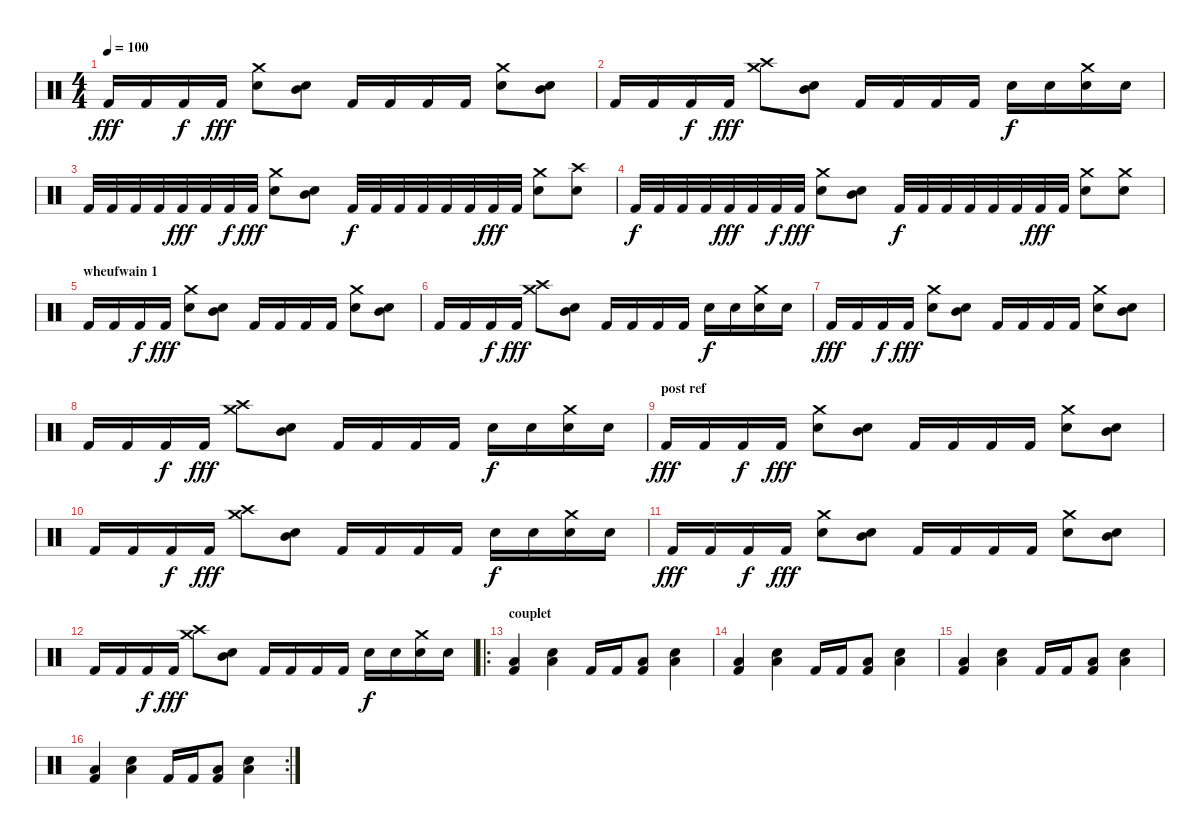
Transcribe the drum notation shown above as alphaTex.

\track "" {instrument percussion}
\staff {score}
\articulation defaults
\ts (4 4)
\tempo 100
\clef neutral
\ks c "Kick (hit) 2".16{dy fff} "Kick (hit) 2".16 "Kick (hit) 2".16{dy f} "Kick (hit) 2".16{dy fff}
("Electric Snare (hit)" "Crash medium (hit)").8 ("Snare (hit) 2" "Mid Tom (hit)").8 "Kick (hit) 2".16 "Kick (hit) 2".16 "Kick (hit) 2".16 "Kick (hit) 2".16 ("Electric Snare (hit)" "Crash medium (hit)").8 ("Snare (hit) 2" "Mid Tom (hit)").8 |
"Kick (hit) 2".16 "Kick (hit) 2".16 "Kick (hit) 2".16{dy f} "Kick (hit) 2".16{dy fff} ("Crash high (hit)" "Crash medium (hit)").8 ("Snare (hit) 2" "Mid Tom (hit)").8 "Kick (hit) 2".16 "Kick (hit) 2".16 "Kick (hit) 2".16 "Kick (hit) 2".16 "Electric Snare (hit)".16{dy f} "Electric Snare (hit)".16 ("Electric Snare (hit)" "Crash medium (hit)").16 "Electric Snare (hit)".16 |
"Kick (hit) 2".32 "Kick (hit) 2".32 "Kick (hit) 2".32 "Kick (hit) 2".32 "Kick (hit) 2".32{dy fff} "Kick (hit) 2".32 "Kick (hit) 2".32{dy f} "Kick (hit) 2".32{dy fff} ("Electric Snare (hit)" "Crash medium (hit)").8 ("Snare (hit) 2" "Mid Tom (hit)").8 "Kick (hit) 2".32{dy f} "Kick (hit) 2".32 "Kick (hit) 2".32 "Kick (hit) 2".32 "Kick (hit) 2".32 "Kick (hit) 2".32 "Kick (hit) 2".32{dy fff} "Kick (hit) 2".32 ("Electric Snare (hit)" "Crash medium (hit)").8 ("Electric Snare (hit)" "Crash high (hit)").8 |
"Kick (hit) 2".32{dy f} "Kick (hit) 2".32 "Kick (hit) 2".32 "Kick (hit) 2".32 "Kick (hit) 2".32{dy fff} "Kick (hit) 2".32 "Kick (hit) 2".32{dy f} "Kick (hit) 2".32{dy fff} ("Electric Snare (hit)" "Crash medium (hit)").8 ("Snare (hit) 2" "Mid Tom (hit)").8 "Kick (hit) 2".32{dy f} "Kick (hit) 2".32 "Kick (hit) 2".32 "Kick (hit) 2".32 "Kick (hit) 2".32 "Kick (hit) 2".32 "Kick (hit) 2".32{dy fff} "Kick (hit) 2".32 ("Electric Snare (hit)" "Crash medium (hit)").8 ("Electric Snare (hit)" "Crash medium (hit)").8 |
\section ("" "wheufwain 1")
"Kick (hit) 2".16 "Kick (hit) 2".16 "Kick (hit) 2".16{dy f} "Kick (hit) 2".16{dy fff} ("Electric Snare (hit)" "Crash medium (hit)").8 ("Snare (hit) 2" "Mid Tom (hit)").8 "Kick (hit) 2".16 "Kick (hit) 2".16 "Kick (hit) 2".16 "Kick (hit) 2".16 ("Electric Snare (hit)" "Crash medium (hit)").8 ("Snare (hit) 2" "Mid Tom (hit)").8 |
"Kick (hit) 2".16 "Kick (hit) 2".16 "Kick (hit) 2".16{dy f} "Kick (hit) 2".16{dy fff} ("Crash high (hit)" "Crash medium (hit)").8 ("Snare (hit) 2" "Mid Tom (hit)").8 "Kick (hit) 2".16 "Kick (hit) 2".16 "Kick (hit) 2".16 "Kick (hit) 2".16 "Electric Snare (hit)".16{dy f} "Electric Snare (hit)".16 ("Electric Snare (hit)" "Crash medium (hit)").16 "Electric Snare (hit)".16 |
"Kick (hit) 2".16{dy fff} "Kick (hit) 2".16 "Kick (hit) 2".16{dy f} "Kick (hit) 2".16{dy fff} ("Electric Snare (hit)" "Crash medium (hit)").8 ("Snare (hit) 2" "Mid Tom (hit)").8 "Kick (hit) 2".16 "Kick (hit) 2".16 "Kick (hit) 2".16 "Kick (hit) 2".16 ("Electric Snare (hit)" "Crash medium (hit)").8 ("Snare (hit) 2" "Mid Tom (hit)").8 |
"Kick (hit) 2".16 "Kick (hit) 2".16 "Kick (hit) 2".16{dy f} "Kick (hit) 2".16{dy fff} ("Crash high (hit)" "Crash medium (hit)").8 ("Snare (hit) 2" "Mid Tom (hit)").8 "Kick (hit) 2".16 "Kick (hit) 2".16 "Kick (hit) 2".16 "Kick (hit) 2".16 "Electric Snare (hit)".16{dy f} "Electric Snare (hit)".16 ("Electric Snare (hit)" "Crash medium (hit)").16 "Electric Snare (hit)".16 |
\section ("" "post ref")
"Kick (hit) 2".16{dy fff} "Kick (hit) 2".16 "Kick (hit) 2".16{dy f} "Kick (hit) 2".16{dy fff} ("Electric Snare (hit)" "Crash medium (hit)").8 ("Snare (hit) 2" "Mid Tom (hit)").8 "Kick (hit) 2".16 "Kick (hit) 2".16 "Kick (hit) 2".16 "Kick (hit) 2".16 ("Electric Snare (hit)" "Crash medium (hit)").8 ("Snare (hit) 2" "Mid Tom (hit)").8 |
"Kick (hit) 2".16 "Kick (hit) 2".16 "Kick (hit) 2".16{dy f} "Kick (hit) 2".16{dy fff} ("Crash high (hit)" "Crash medium (hit)").8 ("Snare (hit) 2" "Mid Tom (hit)").8 "Kick (hit) 2".16 "Kick (hit) 2".16 "Kick (hit) 2".16 "Kick (hit) 2".16 "Electric Snare (hit)".16{dy f} "Electric Snare (hit)".16 ("Electric Snare (hit)" "Crash medium (hit)").16 "Electric Snare (hit)".16 |
"Kick (hit) 2".16{dy fff} "Kick (hit) 2".16 "Kick (hit) 2".16{dy f} "Kick (hit) 2".16{dy fff} ("Electric Snare (hit)" "Crash medium (hit)").8 ("Snare (hit) 2" "Mid Tom (hit)").8 "Kick (hit) 2".16 "Kick (hit) 2".16 "Kick (hit) 2".16 "Kick (hit) 2".16 ("Electric Snare (hit)" "Crash medium (hit)").8 ("Snare (hit) 2" "Mid Tom (hit)").8 |
"Kick (hit) 2".16 "Kick (hit) 2".16 "Kick (hit) 2".16{dy f} "Kick (hit) 2".16{dy fff} ("Crash high (hit)" "Crash medium (hit)").8 ("Snare (hit) 2" "Mid Tom (hit)").8 "Kick (hit) 2".16 "Kick (hit) 2".16 "Kick (hit) 2".16 "Kick (hit) 2".16 "Electric Snare (hit)".16{dy f} "Electric Snare (hit)".16 ("Electric Snare (hit)" "Crash medium (hit)").16 "Electric Snare (hit)".16 |
\ro
\section ("" "couplet")
("Low Tom (hit)" "Kick (hit) 2").4 ("Low Tom (hit)" "Electric Snare (hit)").4 "Kick (hit) 2".16 "Kick (hit) 2".16 ("Low Tom (hit)" "Kick (hit) 2").8 ("Low Tom (hit)" "Electric Snare (hit)").4 |
("Low Tom (hit)" "Kick (hit) 2").4 ("Low Tom (hit)" "Electric Snare (hit)").4 "Kick (hit) 2".16 "Kick (hit) 2".16 ("Low Tom (hit)" "Kick (hit) 2").8 ("Low Tom (hit)" "Electric Snare (hit)").4 |
("Low Tom (hit)" "Kick (hit) 2").4 ("Low Tom (hit)" "Electric Snare (hit)").4 "Kick (hit) 2".16 "Kick (hit) 2".16 ("Low Tom (hit)" "Kick (hit) 2").8 ("Low Tom (hit)" "Electric Snare (hit)").4 |
\rc 2
("Low Tom (hit)" "Kick (hit) 2").4 ("Low Tom (hit)" "Electric Snare (hit)").4 "Kick (hit) 2".16 "Kick (hit) 2".16 ("Low Tom (hit)" "Kick (hit) 2").8 ("Low Tom (hit)" "Electric Snare (hit)").4
